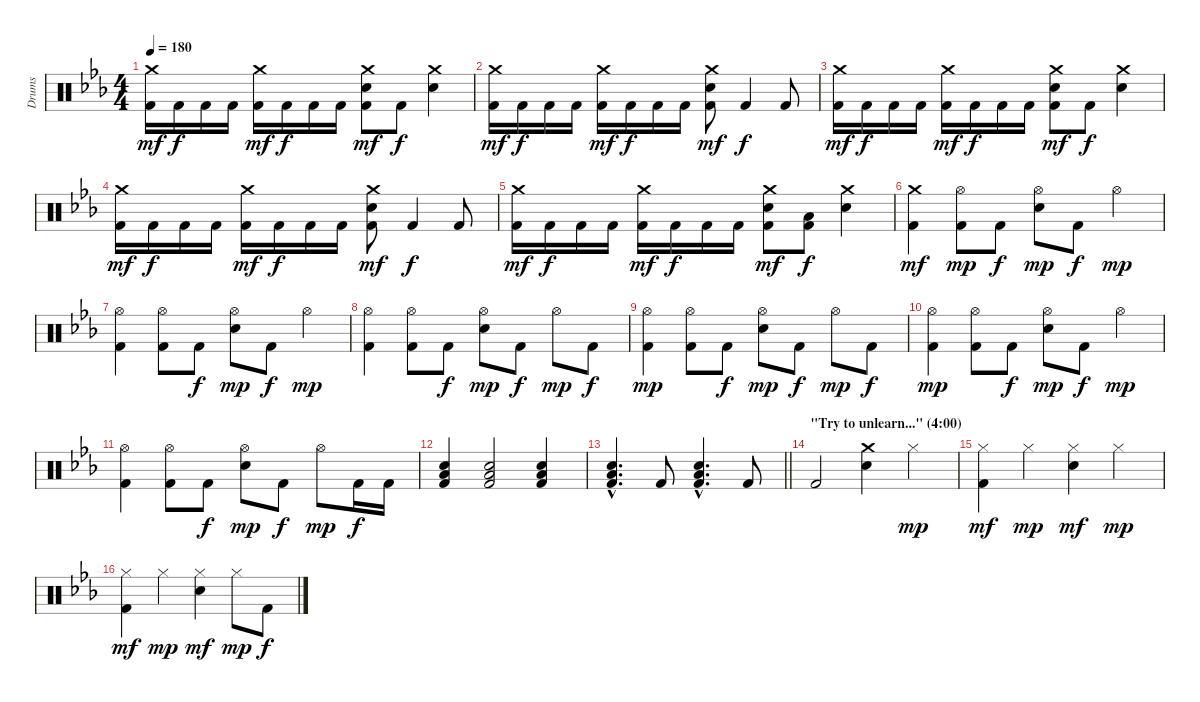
\track ("Drums" "Drums") {instrument percussion}
\staff {score}
\articulation defaults
\ts (4 4)
\tempo 180
\clef neutral
\ks eb
("Crash medium (hit)" "Kick (hit) 2").16{dy mf} "Kick (hit) 2".16{dy f} "Kick (hit) 2".16 "Kick (hit) 2".16 ("Crash medium (hit)" "Kick (hit) 2").16{dy mf} "Kick (hit) 2".16{dy f} "Kick (hit) 2".16 "Kick (hit) 2".16 ("Crash medium (hit)" "Electric Snare (hit)" "Kick (hit) 2").8{dy mf} "Kick (hit) 2".8{dy f} ("Crash medium (hit)" "Electric Snare (hit)").4 |
("Crash medium (hit)" "Kick (hit) 2").16{dy mf} "Kick (hit) 2".16{dy f} "Kick (hit) 2".16 "Kick (hit) 2".16 ("Crash medium (hit)" "Kick (hit) 2").16{dy mf} "Kick (hit) 2".16{dy f} "Kick (hit) 2".16 "Kick (hit) 2".16 ("Crash medium (hit)" "Electric Snare (hit)" "Kick (hit) 2").8{dy mf} "Kick (hit) 2".4{dy f} "Kick (hit) 2".8 |
("Crash medium (hit)" "Kick (hit) 2").16{dy mf} "Kick (hit) 2".16{dy f} "Kick (hit) 2".16 "Kick (hit) 2".16 ("Crash medium (hit)" "Kick (hit) 2").16{dy mf} "Kick (hit) 2".16{dy f} "Kick (hit) 2".16 "Kick (hit) 2".16 ("Crash medium (hit)" "Electric Snare (hit)" "Kick (hit) 2").8{dy mf} "Kick (hit) 2".8{dy f} ("Crash medium (hit)" "Electric Snare (hit)").4 |
("Crash medium (hit)" "Kick (hit) 2").16{dy mf} "Kick (hit) 2".16{dy f} "Kick (hit) 2".16 "Kick (hit) 2".16 ("Crash medium (hit)" "Kick (hit) 2").16{dy mf} "Kick (hit) 2".16{dy f} "Kick (hit) 2".16 "Kick (hit) 2".16 ("Crash medium (hit)" "Electric Snare (hit)" "Kick (hit) 2").8{dy mf} "Kick (hit) 2".4{dy f} "Kick (hit) 2".8 |
("Crash medium (hit)" "Kick (hit) 2").16{dy mf} "Kick (hit) 2".16{dy f} "Kick (hit) 2".16 "Kick (hit) 2".16 ("Crash medium (hit)" "Kick (hit) 2").16{dy mf} "Kick (hit) 2".16{dy f} "Kick (hit) 2".16 "Kick (hit) 2".16 ("Crash medium (hit)" "Electric Snare (hit)" "Kick (hit) 2").8{dy mf} ("Low Floor Tom (hit)" "Kick (hit) 2").8{dy f} ("Crash medium (hit)" "Electric Snare (hit)").4 |
("Crash medium (hit)" "Kick (hit) 2").4{dy mf} ("Hi-Hat (open)" "Kick (hit) 2").8{dy mp} "Kick (hit) 2".8{dy f} ("Hi-Hat (open)" "Electric Snare (hit)").8{dy mp} "Kick (hit) 2".8{dy f} "Hi-Hat (open)".4{dy mp} |
("Hi-Hat (open)" "Kick (hit) 2").4 ("Hi-Hat (open)" "Kick (hit) 2").8 "Kick (hit) 2".8{dy f} ("Hi-Hat (open)" "Electric Snare (hit)").8{dy mp} "Kick (hit) 2".8{dy f} "Hi-Hat (open)".4{dy mp} |
("Hi-Hat (open)" "Kick (hit) 2").4 ("Hi-Hat (open)" "Kick (hit) 2").8 "Kick (hit) 2".8{dy f} ("Hi-Hat (open)" "Electric Snare (hit)").8{dy mp} "Kick (hit) 2".8{dy f} "Hi-Hat (open)".8{dy mp} "Kick (hit) 2".8{dy f} |
("Hi-Hat (open)" "Kick (hit) 2").4{dy mp} ("Hi-Hat (open)" "Kick (hit) 2").8 "Kick (hit) 2".8{dy f} ("Hi-Hat (open)" "Electric Snare (hit)").8{dy mp} "Kick (hit) 2".8{dy f} "Hi-Hat (open)".8{dy mp} "Kick (hit) 2".8{dy f} |
("Hi-Hat (open)" "Kick (hit) 2").4{dy mp} ("Hi-Hat (open)" "Kick (hit) 2").8 "Kick (hit) 2".8{dy f} ("Hi-Hat (open)" "Electric Snare (hit)").8{dy mp} "Kick (hit) 2".8{dy f} "Hi-Hat (open)".4{dy mp} |
("Hi-Hat (open)" "Kick (hit) 2").4 ("Hi-Hat (open)" "Kick (hit) 2").8 "Kick (hit) 2".8{dy f} ("Hi-Hat (open)" "Electric Snare (hit)").8{dy mp} "Kick (hit) 2".8{dy f} "Hi-Hat (open)".8{dy mp} "Kick (hit) 2".16{dy f} "Kick (hit) 2".16 |
("Low Floor Tom (hit)" "Electric Snare (hit)" "Kick (hit) 2").4 ("Low Floor Tom (hit)" "Electric Snare (hit)" "Kick (hit) 2").2 ("Low Floor Tom (hit)" "Electric Snare (hit)" "Kick (hit) 2").4 |
\barLineRight lightlight
("Low Floor Tom (hit)"{hac} "Electric Snare (hit)"{hac} "Kick (hit) 2"{hac}).4{d} "Kick (hit) 2".8 ("Low Floor Tom (hit)"{hac} "Electric Snare (hit)"{hac} "Kick (hit) 2"{hac}).4{d} "Kick (hit) 2".8 |
\section ("" "\"Try to unlearn...\" (4:00)")
"Kick (hit) 2".2 ("Crash medium (hit)" "Electric Snare (hit)").4 "Hi-Hat (closed)".4{dy mp} |
("Hi-Hat (closed)" "Kick (hit) 2").4{dy mf} "Hi-Hat (closed)".4{dy mp} ("Hi-Hat (closed)" "Electric Snare (hit)").4{dy mf} "Hi-Hat (closed)".4{dy mp} |
("Hi-Hat (closed)" "Kick (hit) 2").4{dy mf} "Hi-Hat (closed)".4{dy mp} ("Hi-Hat (closed)" "Electric Snare (hit)").4{dy mf} "Hi-Hat (closed)".8{dy mp} "Kick (hit) 2".8{dy f}
